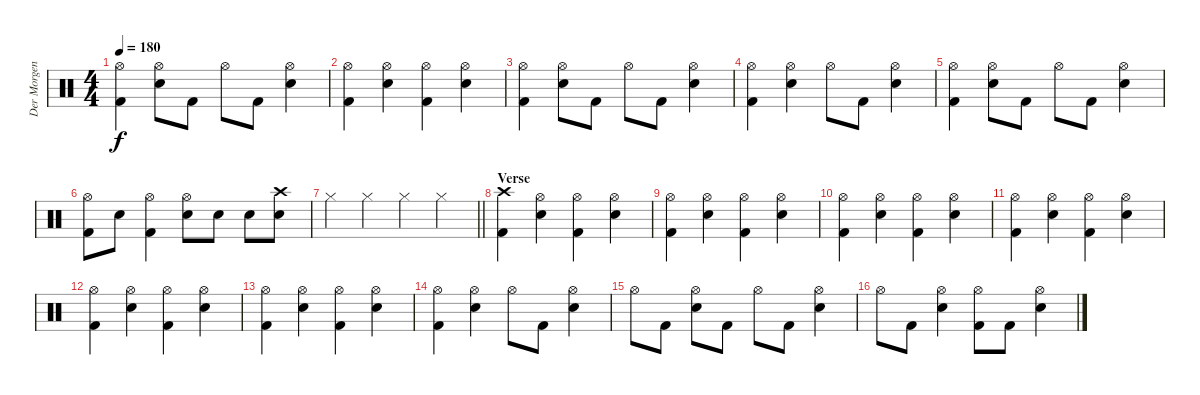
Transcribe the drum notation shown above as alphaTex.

\track ("Der Morgenstern" "Der Morgen") {instrument percussion}
\staff {score}
\articulation defaults
\ts (4 4)
\tempo 180
\clef neutral
\ks c
("Hi-Hat (open)" "Kick (hit) 2").4{dy f} ("Hi-Hat (open)" "Electric Snare (hit)").8 "Kick (hit) 2".8 "Hi-Hat (open)".8 "Kick (hit) 2".8 ("Hi-Hat (open)" "Electric Snare (hit)").4 |
("Hi-Hat (open)" "Kick (hit) 2").4 ("Hi-Hat (open)" "Electric Snare (hit)").4 ("Hi-Hat (open)" "Kick (hit) 2").4 ("Hi-Hat (open)" "Electric Snare (hit)").4 |
("Hi-Hat (open)" "Kick (hit) 2").4 ("Hi-Hat (open)" "Electric Snare (hit)").8 "Kick (hit) 2".8 "Hi-Hat (open)".8 "Kick (hit) 2".8 ("Hi-Hat (open)" "Electric Snare (hit)").4 |
("Hi-Hat (open)" "Kick (hit) 2").4 ("Hi-Hat (open)" "Electric Snare (hit)").4 "Hi-Hat (open)".8 "Kick (hit) 2".8 ("Hi-Hat (open)" "Electric Snare (hit)").4 |
("Hi-Hat (open)" "Kick (hit) 2").4 ("Hi-Hat (open)" "Electric Snare (hit)").8 "Kick (hit) 2".8 "Hi-Hat (open)".8 "Kick (hit) 2".8 ("Hi-Hat (open)" "Electric Snare (hit)").4 |
("Hi-Hat (open)" "Kick (hit) 2").8 "Electric Snare (hit)".8 ("Hi-Hat (open)" "Kick (hit) 2").4 ("Hi-Hat (open)" "Electric Snare (hit)").8 "Electric Snare (hit)".8 "Electric Snare (hit)".8 ("Crash high (hit)" "Electric Snare (hit)").8 |
\barLineRight lightlight "Hi-Hat (closed)".4 "Hi-Hat (closed)".4 "Hi-Hat (closed)".4 "Hi-Hat (closed)".4
|
\section ("" "Verse")
("Crash high (hit)" "Kick (hit) 2").4 ("Hi-Hat (open)" "Electric Snare (hit)").4 ("Hi-Hat (open)" "Kick (hit) 2").4 ("Hi-Hat (open)" "Electric Snare (hit)").4 |
("Hi-Hat (open)" "Kick (hit) 2").4 ("Hi-Hat (open)" "Electric Snare (hit)").4 ("Hi-Hat (open)" "Kick (hit) 2").4 ("Hi-Hat (open)" "Electric Snare (hit)").4 |
("Hi-Hat (open)" "Kick (hit) 2").4 ("Hi-Hat (open)" "Electric Snare (hit)").4 ("Hi-Hat (open)" "Kick (hit) 2").4 ("Hi-Hat (open)" "Electric Snare (hit)").4 |
("Hi-Hat (open)" "Kick (hit) 2").4 ("Hi-Hat (open)" "Electric Snare (hit)").4 ("Hi-Hat (open)" "Kick (hit) 2").4 ("Hi-Hat (open)" "Electric Snare (hit)").4 |
("Hi-Hat (open)" "Kick (hit) 2").4 ("Hi-Hat (open)" "Electric Snare (hit)").4 ("Hi-Hat (open)" "Kick (hit) 2").4 ("Hi-Hat (open)" "Electric Snare (hit)").4 |
("Hi-Hat (open)" "Kick (hit) 2").4 ("Hi-Hat (open)" "Electric Snare (hit)").4 ("Hi-Hat (open)" "Kick (hit) 2").4 ("Hi-Hat (open)" "Electric Snare (hit)").4 |
("Hi-Hat (open)" "Kick (hit) 2").4 ("Hi-Hat (open)" "Electric Snare (hit)").4 "Hi-Hat (open)".8 "Kick (hit) 2".8 ("Hi-Hat (open)" "Electric Snare (hit)").4 |
"Hi-Hat (open)".8 "Kick (hit) 2".8 ("Hi-Hat (open)" "Electric Snare (hit)").8 "Kick (hit) 2".8 "Hi-Hat (open)".8 "Kick (hit) 2".8 ("Hi-Hat (open)" "Electric Snare (hit)").4 |
"Hi-Hat (open)".8 "Kick (hit) 2".8 ("Hi-Hat (open)" "Electric Snare (hit)").4 ("Hi-Hat (open)" "Kick (hit) 2").8 "Kick (hit) 2".8 ("Hi-Hat (open)" "Electric Snare (hit)").4
